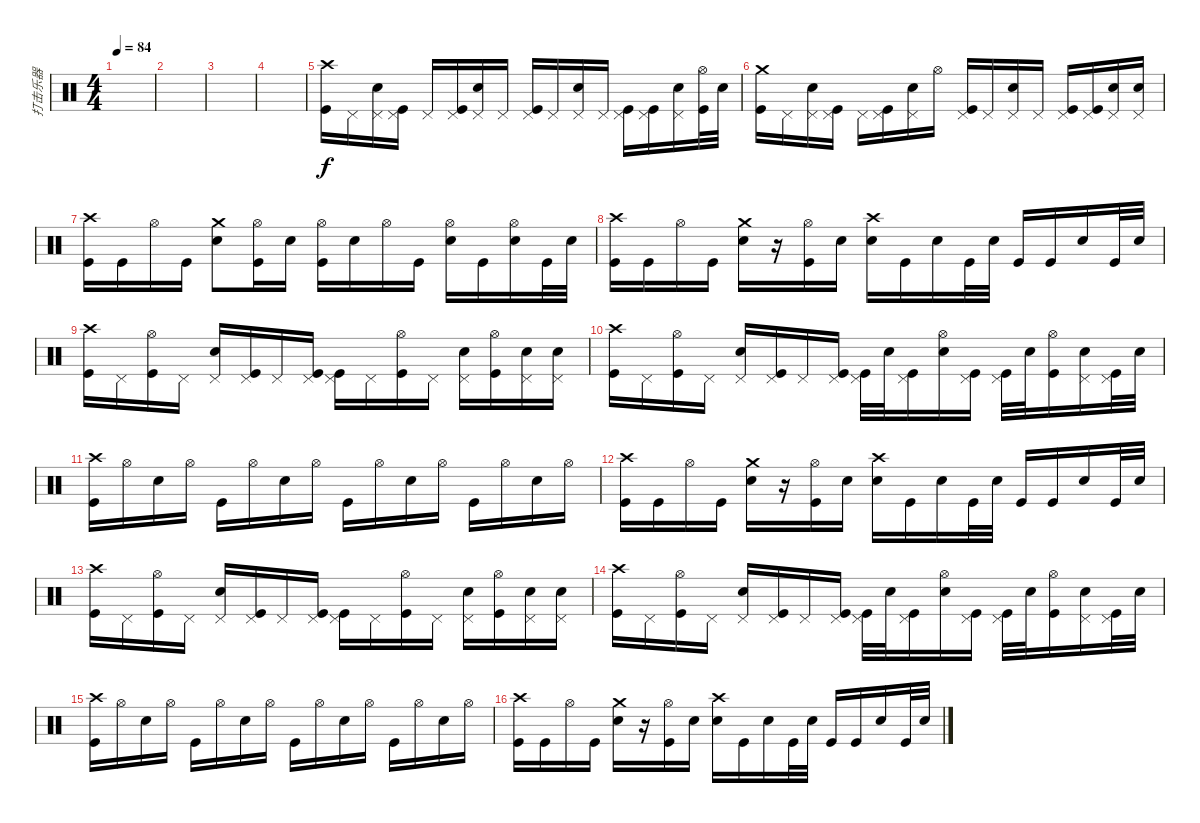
\track ("打击乐器" "打击乐器") {instrument percussion}
\staff {score}
\articulation defaults
\ts (4 4)
\tempo 84
\clef neutral
\ks c
|
|
|
|
("Crash high (hit)" "Kick (hit)").16 "Pedal Hi-Hat (hit)".16 ("Pedal Hi-Hat (hit)" "Electric Snare (hit)").16 ("Pedal Hi-Hat (hit)" "Kick (hit)").16 "Pedal Hi-Hat (hit)".16 ("Pedal Hi-Hat (hit)" "Kick (hit)").16 ("Pedal Hi-Hat (hit)" "Electric Snare (hit)").16 "Pedal Hi-Hat (hit)".16 ("Pedal Hi-Hat (hit)" "Kick (hit)").16 "Pedal Hi-Hat (hit)".16 ("Pedal Hi-Hat (hit)" "Electric Snare (hit)").16 "Pedal Hi-Hat (hit)".16 ("Pedal Hi-Hat (hit)" "Kick (hit)").16 ("Pedal Hi-Hat (hit)" "Kick (hit)").16 ("Pedal Hi-Hat (hit)" "Electric Snare (hit)").16 ("Hi-Hat (open)" "Kick (hit)").32 "Electric Snare (hit)".32 |
("Crash medium (hit)" "Kick (hit)").16 "Pedal Hi-Hat (hit)".16 ("Pedal Hi-Hat (hit)" "Electric Snare (hit)").16 ("Pedal Hi-Hat (hit)" "Kick (hit)").16 "Pedal Hi-Hat (hit)".16 ("Pedal Hi-Hat (hit)" "Kick (hit)").16 ("Pedal Hi-Hat (hit)" "Electric Snare (hit)").16 "Hi-Hat (open)".16 ("Pedal Hi-Hat (hit)" "Kick (hit)").16 "Pedal Hi-Hat (hit)".16 ("Pedal Hi-Hat (hit)" "Electric Snare (hit)").16 "Pedal Hi-Hat (hit)".16 ("Pedal Hi-Hat (hit)" "Kick (hit)").16 ("Pedal Hi-Hat (hit)" "Kick (hit)").16 ("Pedal Hi-Hat (hit)" "Electric Snare (hit)").16 ("Pedal Hi-Hat (hit)" "Electric Snare (hit)").16 |
("Crash high (hit)" "Kick (hit)").16 "Kick (hit)".16 "Hi-Hat (open)".16 "Kick (hit)".16 ("Crash medium (hit)" "Electric Snare (hit)").8 ("Hi-Hat (open)" "Kick (hit)").16 "Electric Snare (hit)".16 ("Hi-Hat (open)" "Kick (hit)").16 "Electric Snare (hit)".16 "Hi-Hat (open)".16 "Kick (hit)".16 ("Hi-Hat (open)" "Electric Snare (hit)").16 "Kick (hit)".16 ("Hi-Hat (open)" "Electric Snare (hit)").16 "Kick (hit)".32 "Electric Snare (hit)".32 |
("Crash high (hit)" "Kick (hit)").16 "Kick (hit)".16 "Hi-Hat (open)".16 "Kick (hit)".16 ("Crash medium (hit)" "Electric Snare (hit)").16 r.16 ("Hi-Hat (open)" "Kick (hit)").16 "Electric Snare (hit)".16 ("Crash high (hit)" "Electric Snare (hit)").16 "Kick (hit)".16 "Electric Snare (hit)".16 "Kick (hit)".32 "Electric Snare (hit)".32 "Kick (hit)".16 "Kick (hit)".16 "Electric Snare (hit)".16 "Kick (hit)".32 "Electric Snare (hit)".32 |
("Crash high (hit)" "Kick (hit)").16 "Pedal Hi-Hat (hit)".16 ("Hi-Hat (open)" "Kick (hit)").16 "Pedal Hi-Hat (hit)".16 ("Pedal Hi-Hat (hit)" "Electric Snare (hit)").16 ("Pedal Hi-Hat (hit)" "Kick (hit)").16 "Pedal Hi-Hat (hit)".16 ("Pedal Hi-Hat (hit)" "Kick (hit)").16 ("Pedal Hi-Hat (hit)" "Kick (hit)").16 "Pedal Hi-Hat (hit)".16 ("Hi-Hat (open)" "Kick (hit)").16 "Pedal Hi-Hat (hit)".16 ("Pedal Hi-Hat (hit)" "Electric Snare (hit)").16 ("Hi-Hat (open)" "Kick (hit)").16 ("Pedal Hi-Hat (hit)" "Electric Snare (hit)").16 ("Pedal Hi-Hat (hit)" "Electric Snare (hit)").16 |
("Crash high (hit)" "Kick (hit)").16 "Pedal Hi-Hat (hit)".16 ("Hi-Hat (open)" "Kick (hit)").16 "Pedal Hi-Hat (hit)".16 ("Pedal Hi-Hat (hit)" "Electric Snare (hit)").16 ("Pedal Hi-Hat (hit)" "Kick (hit)").16 "Pedal Hi-Hat (hit)".16 ("Pedal Hi-Hat (hit)" "Kick (hit)").16 ("Pedal Hi-Hat (hit)" "Kick (hit)").32 "Electric Snare (hit)".32 ("Pedal Hi-Hat (hit)" "Kick (hit)").16 ("Hi-Hat (open)" "Electric Snare (hit)").16 ("Pedal Hi-Hat (hit)" "Kick (hit)").16 ("Pedal Hi-Hat (hit)" "Kick (hit)").32 "Electric Snare (hit)".32 ("Hi-Hat (open)" "Kick (hit)").16 ("Pedal Hi-Hat (hit)" "Electric Snare (hit)").16 ("Pedal Hi-Hat (hit)" "Kick (hit)").32 "Electric Snare (hit)".32 |
("Crash high (hit)" "Kick (hit)").16 "Hi-Hat (open)".16 "Electric Snare (hit)".16 "Hi-Hat (open)".16 "Kick (hit)".16 "Hi-Hat (open)".16 "Electric Snare (hit)".16 "Hi-Hat (open)".16 "Kick (hit)".16 "Hi-Hat (open)".16 "Electric Snare (hit)".16 "Hi-Hat (open)".16 "Kick (hit)".16 "Hi-Hat (open)".16 "Electric Snare (hit)".16 "Hi-Hat (open)".16 |
("Crash high (hit)" "Kick (hit)").16 "Kick (hit)".16 "Hi-Hat (open)".16 "Kick (hit)".16 ("Crash medium (hit)" "Electric Snare (hit)").16 r.16 ("Hi-Hat (open)" "Kick (hit)").16 "Electric Snare (hit)".16 ("Crash high (hit)" "Electric Snare (hit)").16 "Kick (hit)".16 "Electric Snare (hit)".16 "Kick (hit)".32 "Electric Snare (hit)".32 "Kick (hit)".16 "Kick (hit)".16 "Electric Snare (hit)".16 "Kick (hit)".32 "Electric Snare (hit)".32 |
("Crash high (hit)" "Kick (hit)").16 "Pedal Hi-Hat (hit)".16 ("Hi-Hat (open)" "Kick (hit)").16 "Pedal Hi-Hat (hit)".16 ("Pedal Hi-Hat (hit)" "Electric Snare (hit)").16 ("Pedal Hi-Hat (hit)" "Kick (hit)").16 "Pedal Hi-Hat (hit)".16 ("Pedal Hi-Hat (hit)" "Kick (hit)").16 ("Pedal Hi-Hat (hit)" "Kick (hit)").16 "Pedal Hi-Hat (hit)".16 ("Hi-Hat (open)" "Kick (hit)").16 "Pedal Hi-Hat (hit)".16 ("Pedal Hi-Hat (hit)" "Electric Snare (hit)").16 ("Hi-Hat (open)" "Kick (hit)").16 ("Pedal Hi-Hat (hit)" "Electric Snare (hit)").16 ("Pedal Hi-Hat (hit)" "Electric Snare (hit)").16 |
("Crash high (hit)" "Kick (hit)").16 "Pedal Hi-Hat (hit)".16 ("Hi-Hat (open)" "Kick (hit)").16 "Pedal Hi-Hat (hit)".16 ("Pedal Hi-Hat (hit)" "Electric Snare (hit)").16 ("Pedal Hi-Hat (hit)" "Kick (hit)").16 "Pedal Hi-Hat (hit)".16 ("Pedal Hi-Hat (hit)" "Kick (hit)").16 ("Pedal Hi-Hat (hit)" "Kick (hit)").32 "Electric Snare (hit)".32 ("Pedal Hi-Hat (hit)" "Kick (hit)").16 ("Hi-Hat (open)" "Electric Snare (hit)").16 ("Pedal Hi-Hat (hit)" "Kick (hit)").16 ("Pedal Hi-Hat (hit)" "Kick (hit)").32 "Electric Snare (hit)".32 ("Hi-Hat (open)" "Kick (hit)").16 ("Pedal Hi-Hat (hit)" "Electric Snare (hit)").16 ("Pedal Hi-Hat (hit)" "Kick (hit)").32 "Electric Snare (hit)".32 |
("Crash high (hit)" "Kick (hit)").16 "Hi-Hat (open)".16 "Electric Snare (hit)".16 "Hi-Hat (open)".16 "Kick (hit)".16 "Hi-Hat (open)".16 "Electric Snare (hit)".16 "Hi-Hat (open)".16 "Kick (hit)".16 "Hi-Hat (open)".16 "Electric Snare (hit)".16 "Hi-Hat (open)".16 "Kick (hit)".16 "Hi-Hat (open)".16 "Electric Snare (hit)".16 "Hi-Hat (open)".16 |
("Crash high (hit)" "Kick (hit)").16 "Kick (hit)".16 "Hi-Hat (open)".16 "Kick (hit)".16 ("Crash medium (hit)" "Electric Snare (hit)").16 r.16 ("Hi-Hat (open)" "Kick (hit)").16 "Electric Snare (hit)".16 ("Crash high (hit)" "Electric Snare (hit)").16 "Kick (hit)".16 "Electric Snare (hit)".16 "Kick (hit)".32 "Electric Snare (hit)".32 "Kick (hit)".16 "Kick (hit)".16 "Electric Snare (hit)".16 "Kick (hit)".32 "Electric Snare (hit)".32
